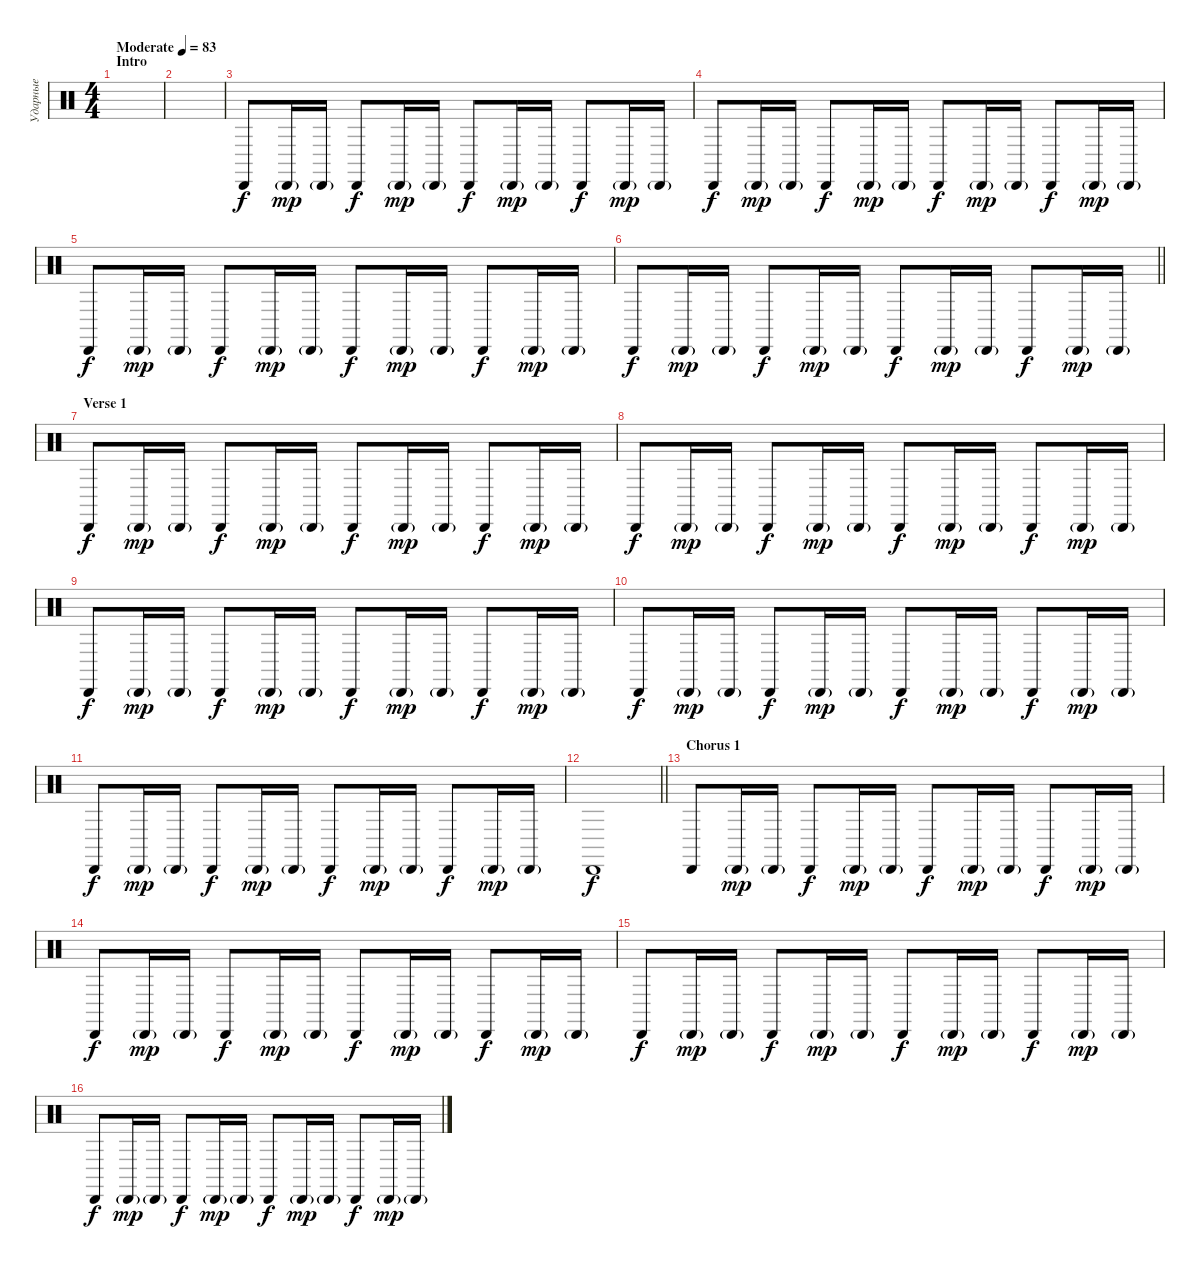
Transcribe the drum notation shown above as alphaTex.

\track ("Ударные" "Ударные") {instrument percussion}
\staff {score}
\articulation defaults
\ts (4 4)
\section ("" "Intro")
\tempo (83 "Moderate")
\clef neutral
\ks c
|
|
"Cabasa (hit)".8 "Cabasa (hit)"{g}.16{dy mp} "Cabasa (hit)"{g}.16 "Cabasa (hit)".8{dy f} "Cabasa (hit)"{g}.16{dy mp} "Cabasa (hit)"{g}.16 "Cabasa (hit)".8{dy f} "Cabasa (hit)"{g}.16{dy mp} "Cabasa (hit)"{g}.16 "Cabasa (hit)".8{dy f} "Cabasa (hit)"{g}.16{dy mp} "Cabasa (hit)"{g}.16 |
"Cabasa (hit)".8{dy f} "Cabasa (hit)"{g}.16{dy mp} "Cabasa (hit)"{g}.16 "Cabasa (hit)".8{dy f} "Cabasa (hit)"{g}.16{dy mp} "Cabasa (hit)"{g}.16 "Cabasa (hit)".8{dy f} "Cabasa (hit)"{g}.16{dy mp} "Cabasa (hit)"{g}.16 "Cabasa (hit)".8{dy f} "Cabasa (hit)"{g}.16{dy mp} "Cabasa (hit)"{g}.16 |
"Cabasa (hit)".8{dy f} "Cabasa (hit)"{g}.16{dy mp} "Cabasa (hit)"{g}.16 "Cabasa (hit)".8{dy f} "Cabasa (hit)"{g}.16{dy mp} "Cabasa (hit)"{g}.16 "Cabasa (hit)".8{dy f} "Cabasa (hit)"{g}.16{dy mp} "Cabasa (hit)"{g}.16 "Cabasa (hit)".8{dy f} "Cabasa (hit)"{g}.16{dy mp} "Cabasa (hit)"{g}.16 |
\barLineRight lightlight "Cabasa (hit)".8{dy f} "Cabasa (hit)"{g}.16{dy mp} "Cabasa (hit)"{g}.16 "Cabasa (hit)".8{dy f} "Cabasa (hit)"{g}.16{dy mp} "Cabasa (hit)"{g}.16 "Cabasa (hit)".8{dy f} "Cabasa (hit)"{g}.16{dy mp} "Cabasa (hit)"{g}.16 "Cabasa (hit)".8{dy f} "Cabasa (hit)"{g}.16{dy mp} "Cabasa (hit)"{g}.16
|
\section ("" "Verse 1")
"Cabasa (hit)".8{dy f} "Cabasa (hit)"{g}.16{dy mp} "Cabasa (hit)"{g}.16 "Cabasa (hit)".8{dy f} "Cabasa (hit)"{g}.16{dy mp} "Cabasa (hit)"{g}.16 "Cabasa (hit)".8{dy f} "Cabasa (hit)"{g}.16{dy mp} "Cabasa (hit)"{g}.16 "Cabasa (hit)".8{dy f} "Cabasa (hit)"{g}.16{dy mp} "Cabasa (hit)"{g}.16 |
"Cabasa (hit)".8{dy f} "Cabasa (hit)"{g}.16{dy mp} "Cabasa (hit)"{g}.16 "Cabasa (hit)".8{dy f} "Cabasa (hit)"{g}.16{dy mp} "Cabasa (hit)"{g}.16 "Cabasa (hit)".8{dy f} "Cabasa (hit)"{g}.16{dy mp} "Cabasa (hit)"{g}.16 "Cabasa (hit)".8{dy f} "Cabasa (hit)"{g}.16{dy mp} "Cabasa (hit)"{g}.16 |
"Cabasa (hit)".8{dy f} "Cabasa (hit)"{g}.16{dy mp} "Cabasa (hit)"{g}.16 "Cabasa (hit)".8{dy f} "Cabasa (hit)"{g}.16{dy mp} "Cabasa (hit)"{g}.16 "Cabasa (hit)".8{dy f} "Cabasa (hit)"{g}.16{dy mp} "Cabasa (hit)"{g}.16 "Cabasa (hit)".8{dy f} "Cabasa (hit)"{g}.16{dy mp} "Cabasa (hit)"{g}.16 |
"Cabasa (hit)".8{dy f} "Cabasa (hit)"{g}.16{dy mp} "Cabasa (hit)"{g}.16 "Cabasa (hit)".8{dy f} "Cabasa (hit)"{g}.16{dy mp} "Cabasa (hit)"{g}.16 "Cabasa (hit)".8{dy f} "Cabasa (hit)"{g}.16{dy mp} "Cabasa (hit)"{g}.16 "Cabasa (hit)".8{dy f} "Cabasa (hit)"{g}.16{dy mp} "Cabasa (hit)"{g}.16 |
"Cabasa (hit)".8{dy f} "Cabasa (hit)"{g}.16{dy mp} "Cabasa (hit)"{g}.16 "Cabasa (hit)".8{dy f} "Cabasa (hit)"{g}.16{dy mp} "Cabasa (hit)"{g}.16 "Cabasa (hit)".8{dy f} "Cabasa (hit)"{g}.16{dy mp} "Cabasa (hit)"{g}.16 "Cabasa (hit)".8{dy f} "Cabasa (hit)"{g}.16{dy mp} "Cabasa (hit)"{g}.16 |
\barLineRight lightlight "Cabasa (hit)".1{dy f}
|
\section ("" "Chorus 1")
"Cabasa (hit)".8 "Cabasa (hit)"{g}.16{dy mp} "Cabasa (hit)"{g}.16 "Cabasa (hit)".8{dy f} "Cabasa (hit)"{g}.16{dy mp} "Cabasa (hit)"{g}.16 "Cabasa (hit)".8{dy f} "Cabasa (hit)"{g}.16{dy mp} "Cabasa (hit)"{g}.16 "Cabasa (hit)".8{dy f} "Cabasa (hit)"{g}.16{dy mp} "Cabasa (hit)"{g}.16 |
"Cabasa (hit)".8{dy f} "Cabasa (hit)"{g}.16{dy mp} "Cabasa (hit)"{g}.16 "Cabasa (hit)".8{dy f} "Cabasa (hit)"{g}.16{dy mp} "Cabasa (hit)"{g}.16 "Cabasa (hit)".8{dy f} "Cabasa (hit)"{g}.16{dy mp} "Cabasa (hit)"{g}.16 "Cabasa (hit)".8{dy f} "Cabasa (hit)"{g}.16{dy mp} "Cabasa (hit)"{g}.16 |
"Cabasa (hit)".8{dy f} "Cabasa (hit)"{g}.16{dy mp} "Cabasa (hit)"{g}.16 "Cabasa (hit)".8{dy f} "Cabasa (hit)"{g}.16{dy mp} "Cabasa (hit)"{g}.16 "Cabasa (hit)".8{dy f} "Cabasa (hit)"{g}.16{dy mp} "Cabasa (hit)"{g}.16 "Cabasa (hit)".8{dy f} "Cabasa (hit)"{g}.16{dy mp} "Cabasa (hit)"{g}.16 |
"Cabasa (hit)".8{dy f} "Cabasa (hit)"{g}.16{dy mp} "Cabasa (hit)"{g}.16 "Cabasa (hit)".8{dy f} "Cabasa (hit)"{g}.16{dy mp} "Cabasa (hit)"{g}.16 "Cabasa (hit)".8{dy f} "Cabasa (hit)"{g}.16{dy mp} "Cabasa (hit)"{g}.16 "Cabasa (hit)".8{dy f} "Cabasa (hit)"{g}.16{dy mp} "Cabasa (hit)"{g}.16
